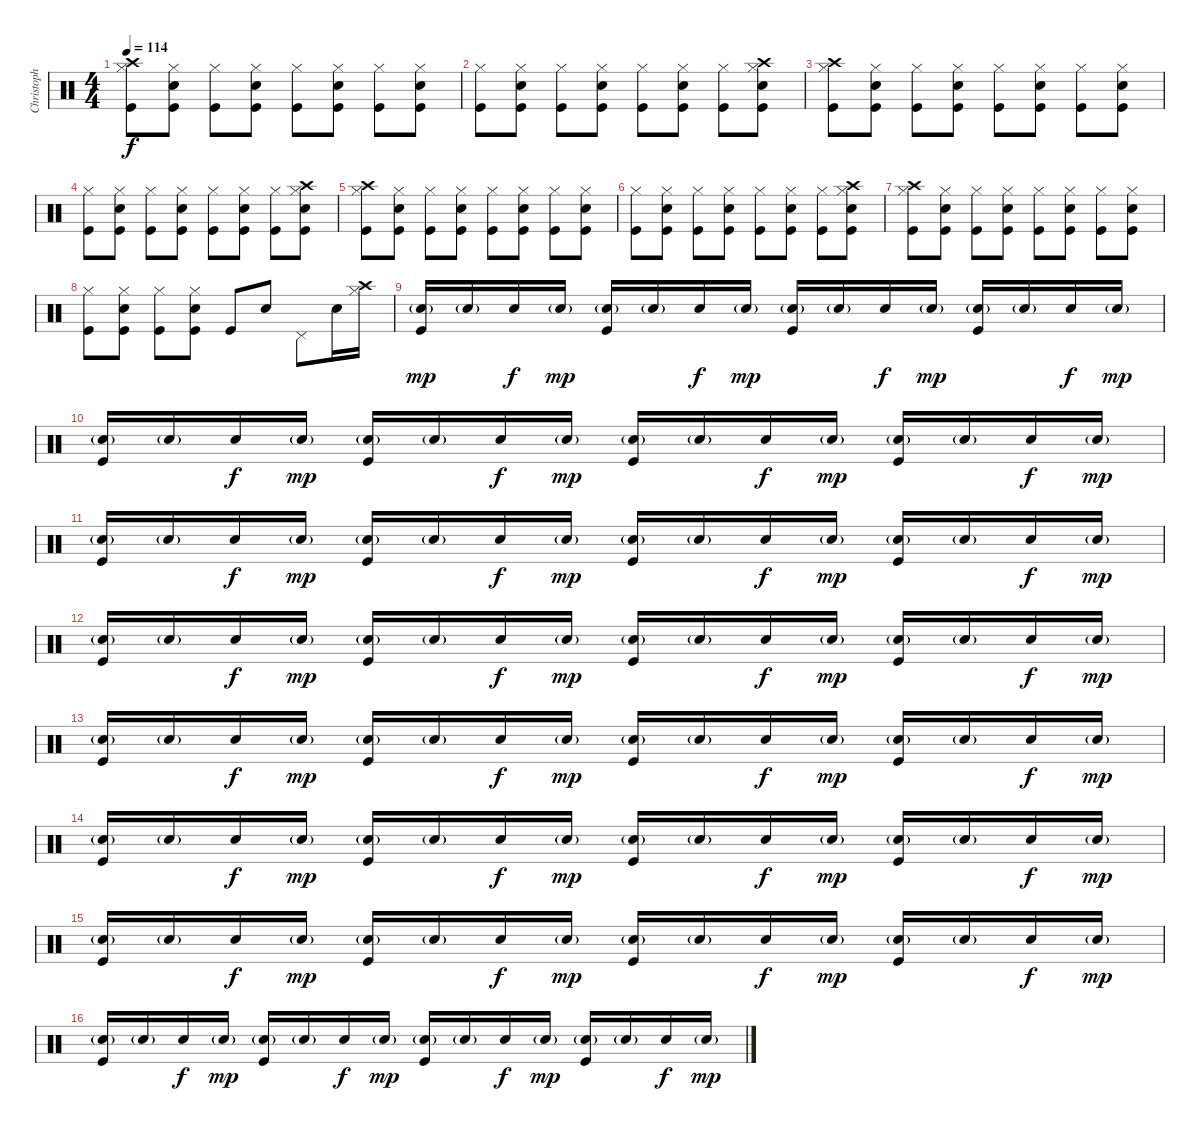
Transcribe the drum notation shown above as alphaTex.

\track ("Christoph - Drums" "Christoph ") {instrument percussion}
\staff {score}
\articulation defaults
\ts (4 4)
\tempo 114
\clef neutral
\ks c
("Crash high (hit)" "Hi-Hat (closed)" "Kick (hit)").8{dy f} ("Hi-Hat (closed)" "Snare (hit) 2" "Kick (hit)").8 ("Hi-Hat (closed)" "Kick (hit)").8 ("Hi-Hat (closed)" "Snare (hit) 2" "Kick (hit)").8 ("Hi-Hat (closed)" "Kick (hit)").8 ("Hi-Hat (closed)" "Snare (hit) 2" "Kick (hit)").8 ("Hi-Hat (closed)" "Kick (hit)").8 ("Hi-Hat (closed)" "Snare (hit) 2" "Kick (hit)").8 |
("Hi-Hat (closed)" "Kick (hit)").8 ("Hi-Hat (closed)" "Snare (hit) 2" "Kick (hit)").8 ("Hi-Hat (closed)" "Kick (hit)").8 ("Hi-Hat (closed)" "Snare (hit) 2" "Kick (hit)").8 ("Hi-Hat (closed)" "Kick (hit)").8 ("Hi-Hat (closed)" "Snare (hit) 2" "Kick (hit)").8 ("Hi-Hat (closed)" "Kick (hit)").8 ("Crash high (hit)" "Hi-Hat (closed)" "Snare (hit) 2" "Kick (hit)").8 |
("Crash high (hit)" "Hi-Hat (closed)" "Kick (hit)").8 ("Hi-Hat (closed)" "Snare (hit) 2" "Kick (hit)").8 ("Hi-Hat (closed)" "Kick (hit)").8 ("Hi-Hat (closed)" "Snare (hit) 2" "Kick (hit)").8 ("Hi-Hat (closed)" "Kick (hit)").8 ("Hi-Hat (closed)" "Snare (hit) 2" "Kick (hit)").8 ("Hi-Hat (closed)" "Kick (hit)").8 ("Hi-Hat (closed)" "Snare (hit) 2" "Kick (hit)").8 |
("Hi-Hat (closed)" "Kick (hit)").8 ("Hi-Hat (closed)" "Snare (hit) 2" "Kick (hit)").8 ("Hi-Hat (closed)" "Kick (hit)").8 ("Hi-Hat (closed)" "Snare (hit) 2" "Kick (hit)").8 ("Hi-Hat (closed)" "Kick (hit)").8 ("Hi-Hat (closed)" "Snare (hit) 2" "Kick (hit)").8 ("Hi-Hat (closed)" "Kick (hit)").8 ("Crash high (hit)" "Hi-Hat (closed)" "Snare (hit) 2" "Kick (hit)").8 |
("Crash high (hit)" "Hi-Hat (closed)" "Kick (hit)").8 ("Hi-Hat (closed)" "Snare (hit) 2" "Kick (hit)").8 ("Hi-Hat (closed)" "Kick (hit)").8 ("Hi-Hat (closed)" "Snare (hit) 2" "Kick (hit)").8 ("Hi-Hat (closed)" "Kick (hit)").8 ("Hi-Hat (closed)" "Snare (hit) 2" "Kick (hit)").8 ("Hi-Hat (closed)" "Kick (hit)").8 ("Hi-Hat (closed)" "Snare (hit) 2" "Kick (hit)").8 |
("Hi-Hat (closed)" "Kick (hit)").8 ("Hi-Hat (closed)" "Snare (hit) 2" "Kick (hit)").8 ("Hi-Hat (closed)" "Kick (hit)").8 ("Hi-Hat (closed)" "Snare (hit) 2" "Kick (hit)").8 ("Hi-Hat (closed)" "Kick (hit)").8 ("Hi-Hat (closed)" "Snare (hit) 2" "Kick (hit)").8 ("Hi-Hat (closed)" "Kick (hit)").8 ("Crash high (hit)" "Hi-Hat (closed)" "Snare (hit) 2" "Kick (hit)").8 |
("Crash high (hit)" "Hi-Hat (closed)" "Kick (hit)").8 ("Hi-Hat (closed)" "Snare (hit) 2" "Kick (hit)").8 ("Hi-Hat (closed)" "Kick (hit)").8 ("Hi-Hat (closed)" "Snare (hit) 2" "Kick (hit)").8 ("Hi-Hat (closed)" "Kick (hit)").8 ("Hi-Hat (closed)" "Snare (hit) 2" "Kick (hit)").8 ("Hi-Hat (closed)" "Kick (hit)").8 ("Hi-Hat (closed)" "Snare (hit) 2" "Kick (hit)").8 |
("Hi-Hat (closed)" "Kick (hit)").8 ("Hi-Hat (closed)" "Snare (hit) 2" "Kick (hit)").8 ("Hi-Hat (closed)" "Kick (hit)").8 ("Hi-Hat (closed)" "Snare (hit) 2" "Kick (hit)").8 "Kick (hit)".8 "Snare (hit) 2".8 "Pedal Hi-Hat (hit)".8 "Snare (hit) 2".16 ("Crash high (hit)" "Hi-Hat (closed)").16 |
("Snare (hit) 2"{g} "Kick (hit)").16{dy mp} "Snare (hit) 2"{g}.16 "Snare (hit) 2".16{dy f} "Snare (hit) 2"{g}.16{dy mp} ("Snare (hit) 2"{g} "Kick (hit)").16 "Snare (hit) 2"{g}.16 "Snare (hit) 2".16{dy f} "Snare (hit) 2"{g}.16{dy mp} ("Snare (hit) 2"{g} "Kick (hit)").16 "Snare (hit) 2"{g}.16 "Snare (hit) 2".16{dy f} "Snare (hit) 2"{g}.16{dy mp} ("Snare (hit) 2"{g} "Kick (hit)").16 "Snare (hit) 2"{g}.16 "Snare (hit) 2".16{dy f} "Snare (hit) 2"{g}.16{dy mp} |
("Snare (hit) 2"{g} "Kick (hit)").16 "Snare (hit) 2"{g}.16 "Snare (hit) 2".16{dy f} "Snare (hit) 2"{g}.16{dy mp} ("Snare (hit) 2"{g} "Kick (hit)").16 "Snare (hit) 2"{g}.16 "Snare (hit) 2".16{dy f} "Snare (hit) 2"{g}.16{dy mp} ("Snare (hit) 2"{g} "Kick (hit)").16 "Snare (hit) 2"{g}.16 "Snare (hit) 2".16{dy f} "Snare (hit) 2"{g}.16{dy mp} ("Snare (hit) 2"{g} "Kick (hit)").16 "Snare (hit) 2"{g}.16 "Snare (hit) 2".16{dy f} "Snare (hit) 2"{g}.16{dy mp} |
("Snare (hit) 2"{g} "Kick (hit)").16 "Snare (hit) 2"{g}.16 "Snare (hit) 2".16{dy f} "Snare (hit) 2"{g}.16{dy mp} ("Snare (hit) 2"{g} "Kick (hit)").16 "Snare (hit) 2"{g}.16 "Snare (hit) 2".16{dy f} "Snare (hit) 2"{g}.16{dy mp} ("Snare (hit) 2"{g} "Kick (hit)").16 "Snare (hit) 2"{g}.16 "Snare (hit) 2".16{dy f} "Snare (hit) 2"{g}.16{dy mp} ("Snare (hit) 2"{g} "Kick (hit)").16 "Snare (hit) 2"{g}.16 "Snare (hit) 2".16{dy f} "Snare (hit) 2"{g}.16{dy mp} |
("Snare (hit) 2"{g} "Kick (hit)").16 "Snare (hit) 2"{g}.16 "Snare (hit) 2".16{dy f} "Snare (hit) 2"{g}.16{dy mp} ("Snare (hit) 2"{g} "Kick (hit)").16 "Snare (hit) 2"{g}.16 "Snare (hit) 2".16{dy f} "Snare (hit) 2"{g}.16{dy mp} ("Snare (hit) 2"{g} "Kick (hit)").16 "Snare (hit) 2"{g}.16 "Snare (hit) 2".16{dy f} "Snare (hit) 2"{g}.16{dy mp} ("Snare (hit) 2"{g} "Kick (hit)").16 "Snare (hit) 2"{g}.16 "Snare (hit) 2".16{dy f} "Snare (hit) 2"{g}.16{dy mp} |
("Snare (hit) 2"{g} "Kick (hit)").16 "Snare (hit) 2"{g}.16 "Snare (hit) 2".16{dy f} "Snare (hit) 2"{g}.16{dy mp} ("Snare (hit) 2"{g} "Kick (hit)").16 "Snare (hit) 2"{g}.16 "Snare (hit) 2".16{dy f} "Snare (hit) 2"{g}.16{dy mp} ("Snare (hit) 2"{g} "Kick (hit)").16 "Snare (hit) 2"{g}.16 "Snare (hit) 2".16{dy f} "Snare (hit) 2"{g}.16{dy mp} ("Snare (hit) 2"{g} "Kick (hit)").16 "Snare (hit) 2"{g}.16 "Snare (hit) 2".16{dy f} "Snare (hit) 2"{g}.16{dy mp} |
("Snare (hit) 2"{g} "Kick (hit)").16 "Snare (hit) 2"{g}.16 "Snare (hit) 2".16{dy f} "Snare (hit) 2"{g}.16{dy mp} ("Snare (hit) 2"{g} "Kick (hit)").16 "Snare (hit) 2"{g}.16 "Snare (hit) 2".16{dy f} "Snare (hit) 2"{g}.16{dy mp} ("Snare (hit) 2"{g} "Kick (hit)").16 "Snare (hit) 2"{g}.16 "Snare (hit) 2".16{dy f} "Snare (hit) 2"{g}.16{dy mp} ("Snare (hit) 2"{g} "Kick (hit)").16 "Snare (hit) 2"{g}.16 "Snare (hit) 2".16{dy f} "Snare (hit) 2"{g}.16{dy mp} |
("Snare (hit) 2"{g} "Kick (hit)").16 "Snare (hit) 2"{g}.16 "Snare (hit) 2".16{dy f} "Snare (hit) 2"{g}.16{dy mp} ("Snare (hit) 2"{g} "Kick (hit)").16 "Snare (hit) 2"{g}.16 "Snare (hit) 2".16{dy f} "Snare (hit) 2"{g}.16{dy mp} ("Snare (hit) 2"{g} "Kick (hit)").16 "Snare (hit) 2"{g}.16 "Snare (hit) 2".16{dy f} "Snare (hit) 2"{g}.16{dy mp} ("Snare (hit) 2"{g} "Kick (hit)").16 "Snare (hit) 2"{g}.16 "Snare (hit) 2".16{dy f} "Snare (hit) 2"{g}.16{dy mp} |
("Snare (hit) 2"{g} "Kick (hit)").16 "Snare (hit) 2"{g}.16 "Snare (hit) 2".16{dy f} "Snare (hit) 2"{g}.16{dy mp} ("Snare (hit) 2"{g} "Kick (hit)").16 "Snare (hit) 2"{g}.16 "Snare (hit) 2".16{dy f} "Snare (hit) 2"{g}.16{dy mp} ("Snare (hit) 2"{g} "Kick (hit)").16 "Snare (hit) 2"{g}.16 "Snare (hit) 2".16{dy f} "Snare (hit) 2"{g}.16{dy mp} ("Snare (hit) 2"{g} "Kick (hit)").16 "Snare (hit) 2"{g}.16 "Snare (hit) 2".16{dy f} "Snare (hit) 2"{g}.16{dy mp}
